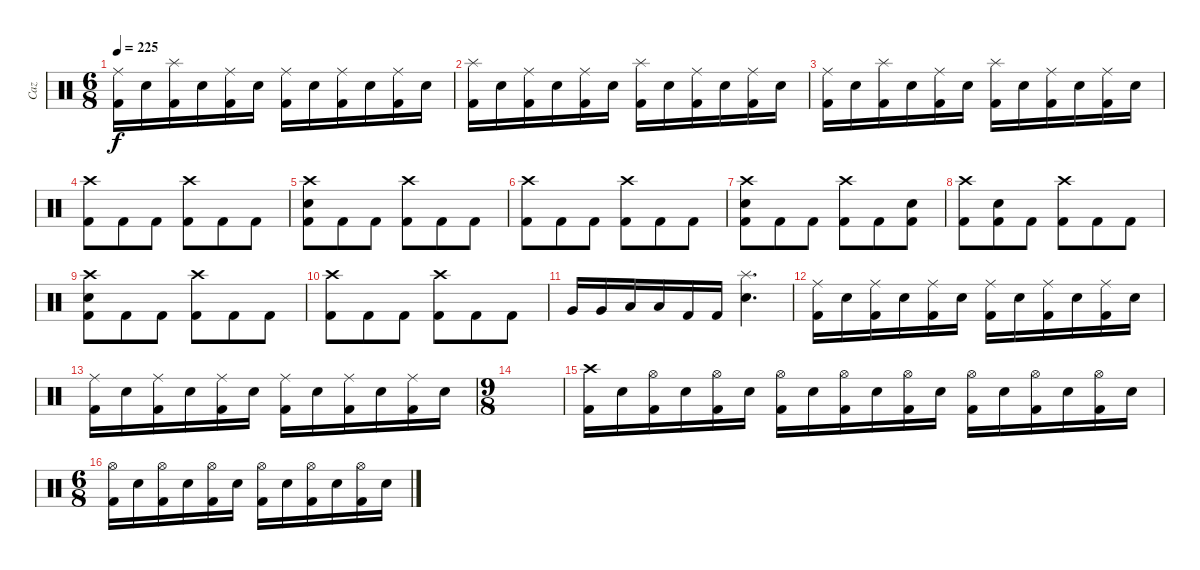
\track ("Caz" "Caz") {instrument percussion}
\staff {score}
\articulation defaults
\ts (6 8)
\tempo 225
\clef neutral
\ks c
("Ride (middle)" "Kick (hit) 2").16{dy f} "Electric Snare (hit)".16 ("Splash (hit)" "Kick (hit) 2").16 "Electric Snare (hit)".16 ("Ride (middle)" "Kick (hit) 2").16 "Electric Snare (hit)".16 ("Ride (middle)" "Kick (hit) 2").16 "Electric Snare (hit)".16 ("Ride (middle)" "Kick (hit) 2").16 "Electric Snare (hit)".16 ("Ride (middle)" "Kick (hit) 2").16 "Electric Snare (hit)".16 |
("Splash (hit)" "Kick (hit) 2").16 "Electric Snare (hit)".16 ("Ride (middle)" "Kick (hit) 2").16 "Electric Snare (hit)".16 ("Ride (middle)" "Kick (hit) 2").16 "Electric Snare (hit)".16 ("Splash (hit)" "Kick (hit) 2").16 "Electric Snare (hit)".16 ("Ride (middle)" "Kick (hit) 2").16 "Electric Snare (hit)".16 ("Ride (middle)" "Kick (hit) 2").16 "Electric Snare (hit)".16 |
("Ride (middle)" "Kick (hit) 2").16 "Electric Snare (hit)".16 ("Splash (hit)" "Kick (hit) 2").16 "Electric Snare (hit)".16 ("Ride (middle)" "Kick (hit) 2").16 "Electric Snare (hit)".16 ("Splash (hit)" "Kick (hit) 2").16 "Electric Snare (hit)".16 ("Ride (middle)" "Kick (hit) 2").16 "Electric Snare (hit)".16 ("Ride (middle)" "Kick (hit) 2").16 "Electric Snare (hit)".16 |
("Crash high (hit)" "Kick (hit) 2").8 "Kick (hit) 2".8 "Kick (hit) 2".8 ("Crash high (hit)" "Kick (hit) 2").8 "Kick (hit) 2".8 "Kick (hit) 2".8 |
("Crash high (hit)" "Electric Snare (hit)" "Kick (hit) 2").8 "Kick (hit) 2".8 "Kick (hit) 2".8 ("Crash high (hit)" "Kick (hit) 2").8 "Kick (hit) 2".8 "Kick (hit) 2".8 |
("Crash high (hit)" "Kick (hit) 2").8 "Kick (hit) 2".8 "Kick (hit) 2".8 ("Crash high (hit)" "Kick (hit) 2").8 "Kick (hit) 2".8 "Kick (hit) 2".8 |
("Crash high (hit)" "Electric Snare (hit)" "Kick (hit) 2").8 "Kick (hit) 2".8 "Kick (hit) 2".8 ("Crash high (hit)" "Kick (hit) 2").8 "Kick (hit) 2".8 ("Electric Snare (hit)" "Kick (hit) 2").8 |
("Crash high (hit)" "Kick (hit) 2").8 ("Electric Snare (hit)" "Kick (hit) 2").8 "Kick (hit) 2".8 ("Crash high (hit)" "Kick (hit) 2").8 "Kick (hit) 2".8 "Kick (hit) 2".8 |
("Crash high (hit)" "Electric Snare (hit)" "Kick (hit) 2").8 "Kick (hit) 2".8 "Kick (hit) 2".8 ("Crash high (hit)" "Kick (hit) 2").8 "Kick (hit) 2".8 "Kick (hit) 2".8 |
("Crash high (hit)" "Kick (hit) 2").8 "Kick (hit) 2".8 "Kick (hit) 2".8 ("Crash high (hit)" "Kick (hit) 2").8 "Kick (hit) 2".8 "Kick (hit) 2".8 |
"Very Low Tom (hit)".16 "Very Low Tom (hit)".16 "Low Floor Tom (hit)".16 "Low Floor Tom (hit)".16 "Kick (hit) 2".16 "Kick (hit) 2".16 ("Splash (hit)" "Electric Snare (hit)").4{d} |
("Ride (middle)" "Kick (hit) 2").16 "Electric Snare (hit)".16 ("Ride (middle)" "Kick (hit) 2").16 "Electric Snare (hit)".16 ("Ride (middle)" "Kick (hit) 2").16 "Electric Snare (hit)".16 ("Ride (middle)" "Kick (hit) 2").16 "Electric Snare (hit)".16 ("Ride (middle)" "Kick (hit) 2").16 "Electric Snare (hit)".16 ("Ride (middle)" "Kick (hit) 2").16 "Electric Snare (hit)".16 |
("Ride (middle)" "Kick (hit) 2").16 "Electric Snare (hit)".16 ("Ride (middle)" "Kick (hit) 2").16 "Electric Snare (hit)".16 ("Ride (middle)" "Kick (hit) 2").16 "Electric Snare (hit)".16 ("Ride (middle)" "Kick (hit) 2").16 "Electric Snare (hit)".16 ("Ride (middle)" "Kick (hit) 2").16 "Electric Snare (hit)".16 ("Ride (middle)" "Kick (hit) 2").16 "Electric Snare (hit)".16 |
\ts (9 8)
|
("Crash high (hit)" "Kick (hit) 2").16 "Electric Snare (hit)".16 ("Hi-Hat (open)" "Kick (hit) 2").16 "Electric Snare (hit)".16 ("Hi-Hat (open)" "Kick (hit) 2").16 "Electric Snare (hit)".16 ("Hi-Hat (open)" "Kick (hit) 2").16 "Electric Snare (hit)".16 ("Hi-Hat (open)" "Kick (hit) 2").16 "Electric Snare (hit)".16 ("Hi-Hat (open)" "Kick (hit) 2").16 "Electric Snare (hit)".16 ("Hi-Hat (open)" "Kick (hit) 2").16 "Electric Snare (hit)".16 ("Hi-Hat (open)" "Kick (hit) 2").16 "Electric Snare (hit)".16 ("Hi-Hat (open)" "Kick (hit) 2").16 "Electric Snare (hit)".16 |
\ts (6 8)
("Hi-Hat (open)" "Kick (hit) 2").16 "Electric Snare (hit)".16 ("Hi-Hat (open)" "Kick (hit) 2").16 "Electric Snare (hit)".16 ("Hi-Hat (open)" "Kick (hit) 2").16 "Electric Snare (hit)".16 ("Hi-Hat (open)" "Kick (hit) 2").16 "Electric Snare (hit)".16 ("Hi-Hat (open)" "Kick (hit) 2").16 "Electric Snare (hit)".16 ("Hi-Hat (open)" "Kick (hit) 2").16 "Electric Snare (hit)".16
